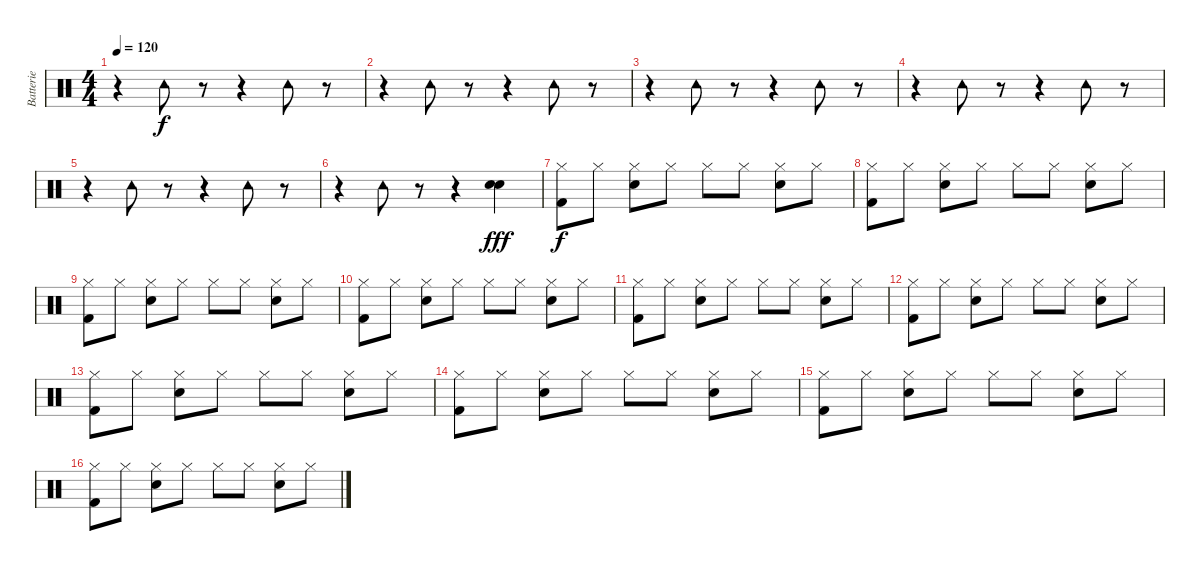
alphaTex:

\track ("Batterie" "Batterie") {instrument percussion}
\staff {score}
\articulation defaults
\ts (4 4)
\tempo 120
\clef neutral
\ks c
r.4{dy f} "Tambourine (hit)".8 r.8 r.4 "Tambourine (hit)".8 r.8 |
r.4 "Tambourine (hit)".8 r.8 r.4 "Tambourine (hit)".8 r.8 |
r.4 "Tambourine (hit)".8 r.8 r.4 "Tambourine (hit)".8 r.8 |
r.4 "Tambourine (hit)".8 r.8 r.4 "Tambourine (hit)".8 r.8 |
r.4 "Tambourine (hit)".8 r.8 r.4 "Tambourine (hit)".8 r.8 |
r.4 "Tambourine (hit)".8 r.8 r.4 ("Electric Snare (hit)" "Snare (hit) 2").4{dy fff} |
("Hi-Hat (closed)" "Kick (hit) 2").8{dy f} "Hi-Hat (closed)".8 ("Hi-Hat (closed)" "Electric Snare (hit)").8 "Hi-Hat (closed)".8 "Hi-Hat (closed)".8 "Hi-Hat (closed)".8 ("Hi-Hat (closed)" "Electric Snare (hit)").8 "Hi-Hat (closed)".8 |
("Hi-Hat (closed)" "Kick (hit) 2").8 "Hi-Hat (closed)".8 ("Hi-Hat (closed)" "Electric Snare (hit)").8 "Hi-Hat (closed)".8 "Hi-Hat (closed)".8 "Hi-Hat (closed)".8 ("Hi-Hat (closed)" "Electric Snare (hit)").8 "Hi-Hat (closed)".8 |
("Hi-Hat (closed)" "Kick (hit) 2").8 "Hi-Hat (closed)".8 ("Hi-Hat (closed)" "Electric Snare (hit)").8 "Hi-Hat (closed)".8 "Hi-Hat (closed)".8 "Hi-Hat (closed)".8 ("Hi-Hat (closed)" "Electric Snare (hit)").8 "Hi-Hat (closed)".8 |
("Hi-Hat (closed)" "Kick (hit) 2").8 "Hi-Hat (closed)".8 ("Hi-Hat (closed)" "Electric Snare (hit)").8 "Hi-Hat (closed)".8 "Hi-Hat (closed)".8 "Hi-Hat (closed)".8 ("Hi-Hat (closed)" "Electric Snare (hit)").8 "Hi-Hat (closed)".8 |
("Hi-Hat (closed)" "Kick (hit) 2").8 "Hi-Hat (closed)".8 ("Hi-Hat (closed)" "Electric Snare (hit)").8 "Hi-Hat (closed)".8 "Hi-Hat (closed)".8 "Hi-Hat (closed)".8 ("Hi-Hat (closed)" "Electric Snare (hit)").8 "Hi-Hat (closed)".8 |
("Hi-Hat (closed)" "Kick (hit) 2").8 "Hi-Hat (closed)".8 ("Hi-Hat (closed)" "Electric Snare (hit)").8 "Hi-Hat (closed)".8 "Hi-Hat (closed)".8 "Hi-Hat (closed)".8 ("Hi-Hat (closed)" "Electric Snare (hit)").8 "Hi-Hat (closed)".8 |
("Hi-Hat (closed)" "Kick (hit) 2").8 "Hi-Hat (closed)".8 ("Hi-Hat (closed)" "Electric Snare (hit)").8 "Hi-Hat (closed)".8 "Hi-Hat (closed)".8 "Hi-Hat (closed)".8 ("Hi-Hat (closed)" "Electric Snare (hit)").8 "Hi-Hat (closed)".8 |
("Hi-Hat (closed)" "Kick (hit) 2").8 "Hi-Hat (closed)".8 ("Hi-Hat (closed)" "Electric Snare (hit)").8 "Hi-Hat (closed)".8 "Hi-Hat (closed)".8 "Hi-Hat (closed)".8 ("Hi-Hat (closed)" "Electric Snare (hit)").8 "Hi-Hat (closed)".8 |
("Hi-Hat (closed)" "Kick (hit) 2").8 "Hi-Hat (closed)".8 ("Hi-Hat (closed)" "Electric Snare (hit)").8 "Hi-Hat (closed)".8 "Hi-Hat (closed)".8 "Hi-Hat (closed)".8 ("Hi-Hat (closed)" "Electric Snare (hit)").8 "Hi-Hat (closed)".8 |
("Hi-Hat (closed)" "Kick (hit) 2").8 "Hi-Hat (closed)".8 ("Hi-Hat (closed)" "Electric Snare (hit)").8 "Hi-Hat (closed)".8 "Hi-Hat (closed)".8 "Hi-Hat (closed)".8 ("Hi-Hat (closed)" "Electric Snare (hit)").8 "Hi-Hat (closed)".8
